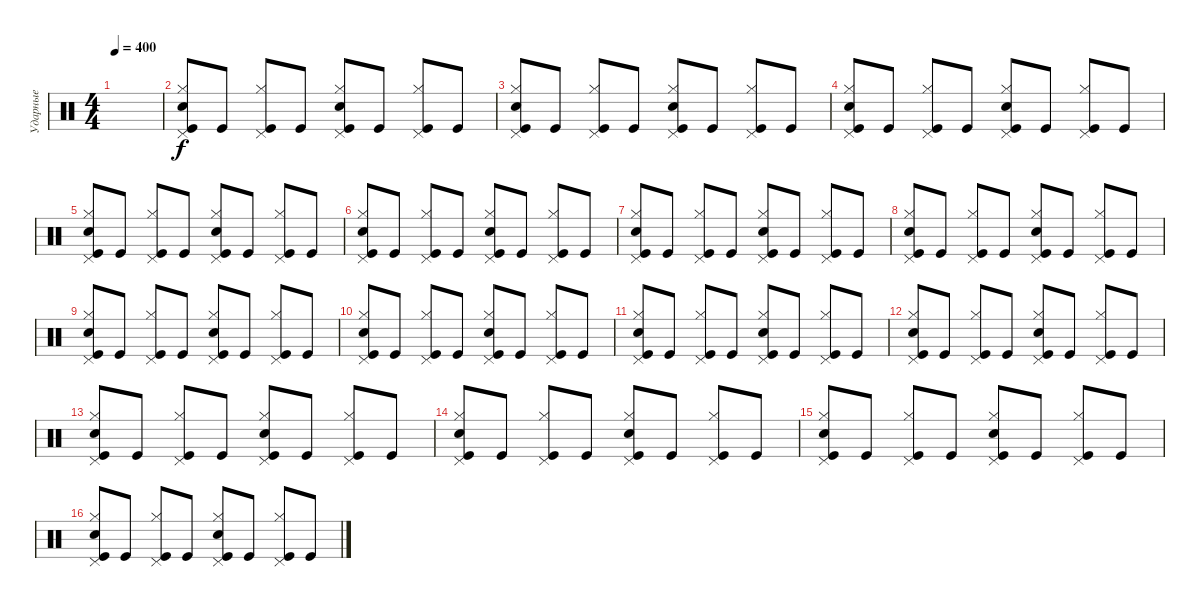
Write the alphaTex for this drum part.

\track ("Ударные" "Ударные") {instrument percussion}
\staff {score}
\articulation defaults
\ts (4 4)
\tempo 400
\clef neutral
\ks c
|
("Pedal Hi-Hat (hit)" "Hi-Hat (closed)" "Kick (hit)" "Electric Snare (hit)").8 "Kick (hit)".8 ("Kick (hit)" "Pedal Hi-Hat (hit)" "Hi-Hat (closed)").8 "Kick (hit)".8 ("Kick (hit)" "Electric Snare (hit)" "Pedal Hi-Hat (hit)" "Hi-Hat (closed)").8 "Kick (hit)".8 ("Kick (hit)" "Hi-Hat (closed)" "Pedal Hi-Hat (hit)").8 "Kick (hit)".8 |
("Kick (hit)" "Electric Snare (hit)" "Pedal Hi-Hat (hit)" "Hi-Hat (closed)").8 "Kick (hit)".8 ("Kick (hit)" "Hi-Hat (closed)" "Pedal Hi-Hat (hit)").8 "Kick (hit)".8 ("Kick (hit)" "Electric Snare (hit)" "Pedal Hi-Hat (hit)" "Hi-Hat (closed)").8 "Kick (hit)".8 ("Kick (hit)" "Hi-Hat (closed)" "Pedal Hi-Hat (hit)").8 "Kick (hit)".8 |
("Kick (hit)" "Electric Snare (hit)" "Pedal Hi-Hat (hit)" "Hi-Hat (closed)").8 "Kick (hit)".8 ("Kick (hit)" "Hi-Hat (closed)" "Pedal Hi-Hat (hit)").8 "Kick (hit)".8 ("Kick (hit)" "Electric Snare (hit)" "Pedal Hi-Hat (hit)" "Hi-Hat (closed)").8 "Kick (hit)".8 ("Kick (hit)" "Hi-Hat (closed)" "Pedal Hi-Hat (hit)").8 "Kick (hit)".8 |
("Kick (hit)" "Electric Snare (hit)" "Pedal Hi-Hat (hit)" "Hi-Hat (closed)").8 "Kick (hit)".8 ("Kick (hit)" "Hi-Hat (closed)" "Pedal Hi-Hat (hit)").8 "Kick (hit)".8 ("Kick (hit)" "Electric Snare (hit)" "Pedal Hi-Hat (hit)" "Hi-Hat (closed)").8 "Kick (hit)".8 ("Kick (hit)" "Hi-Hat (closed)" "Pedal Hi-Hat (hit)").8 "Kick (hit)".8 |
("Kick (hit)" "Electric Snare (hit)" "Pedal Hi-Hat (hit)" "Hi-Hat (closed)").8 "Kick (hit)".8 ("Kick (hit)" "Hi-Hat (closed)" "Pedal Hi-Hat (hit)").8 "Kick (hit)".8 ("Kick (hit)" "Electric Snare (hit)" "Pedal Hi-Hat (hit)" "Hi-Hat (closed)").8 "Kick (hit)".8 ("Kick (hit)" "Hi-Hat (closed)" "Pedal Hi-Hat (hit)").8 "Kick (hit)".8 |
("Kick (hit)" "Electric Snare (hit)" "Pedal Hi-Hat (hit)" "Hi-Hat (closed)").8 "Kick (hit)".8 ("Kick (hit)" "Hi-Hat (closed)" "Pedal Hi-Hat (hit)").8 "Kick (hit)".8 ("Kick (hit)" "Electric Snare (hit)" "Hi-Hat (closed)" "Pedal Hi-Hat (hit)").8 "Kick (hit)".8 ("Kick (hit)" "Pedal Hi-Hat (hit)" "Hi-Hat (closed)").8 "Kick (hit)".8 |
("Kick (hit)" "Electric Snare (hit)" "Hi-Hat (closed)" "Pedal Hi-Hat (hit)").8 "Kick (hit)".8 ("Kick (hit)" "Pedal Hi-Hat (hit)" "Hi-Hat (closed)").8 "Kick (hit)".8 ("Kick (hit)" "Electric Snare (hit)" "Hi-Hat (closed)" "Pedal Hi-Hat (hit)").8 "Kick (hit)".8 ("Kick (hit)" "Pedal Hi-Hat (hit)" "Hi-Hat (closed)").8 "Kick (hit)".8 |
("Kick (hit)" "Electric Snare (hit)" "Hi-Hat (closed)" "Pedal Hi-Hat (hit)").8 "Kick (hit)".8 ("Kick (hit)" "Pedal Hi-Hat (hit)" "Hi-Hat (closed)").8 "Kick (hit)".8 ("Kick (hit)" "Electric Snare (hit)" "Hi-Hat (closed)" "Pedal Hi-Hat (hit)").8 "Kick (hit)".8 ("Kick (hit)" "Pedal Hi-Hat (hit)" "Hi-Hat (closed)").8 "Kick (hit)".8 |
("Pedal Hi-Hat (hit)" "Hi-Hat (closed)" "Kick (hit)" "Electric Snare (hit)").8 "Kick (hit)".8 ("Kick (hit)" "Pedal Hi-Hat (hit)" "Hi-Hat (closed)").8 "Kick (hit)".8 ("Kick (hit)" "Electric Snare (hit)" "Pedal Hi-Hat (hit)" "Hi-Hat (closed)").8 "Kick (hit)".8 ("Kick (hit)" "Hi-Hat (closed)" "Pedal Hi-Hat (hit)").8 "Kick (hit)".8 |
("Kick (hit)" "Electric Snare (hit)" "Pedal Hi-Hat (hit)" "Hi-Hat (closed)").8 "Kick (hit)".8 ("Kick (hit)" "Hi-Hat (closed)" "Pedal Hi-Hat (hit)").8 "Kick (hit)".8 ("Kick (hit)" "Electric Snare (hit)" "Pedal Hi-Hat (hit)" "Hi-Hat (closed)").8 "Kick (hit)".8 ("Kick (hit)" "Hi-Hat (closed)" "Pedal Hi-Hat (hit)").8 "Kick (hit)".8 |
("Kick (hit)" "Electric Snare (hit)" "Pedal Hi-Hat (hit)" "Hi-Hat (closed)").8 "Kick (hit)".8 ("Kick (hit)" "Hi-Hat (closed)" "Pedal Hi-Hat (hit)").8 "Kick (hit)".8 ("Kick (hit)" "Electric Snare (hit)" "Pedal Hi-Hat (hit)" "Hi-Hat (closed)").8 "Kick (hit)".8 ("Kick (hit)" "Hi-Hat (closed)" "Pedal Hi-Hat (hit)").8 "Kick (hit)".8 |
("Kick (hit)" "Electric Snare (hit)" "Pedal Hi-Hat (hit)" "Hi-Hat (closed)").8 "Kick (hit)".8 ("Kick (hit)" "Hi-Hat (closed)" "Pedal Hi-Hat (hit)").8 "Kick (hit)".8 ("Kick (hit)" "Electric Snare (hit)" "Pedal Hi-Hat (hit)" "Hi-Hat (closed)").8 "Kick (hit)".8 ("Kick (hit)" "Hi-Hat (closed)" "Pedal Hi-Hat (hit)").8 "Kick (hit)".8 |
("Kick (hit)" "Electric Snare (hit)" "Pedal Hi-Hat (hit)" "Hi-Hat (closed)").8 "Kick (hit)".8 ("Kick (hit)" "Hi-Hat (closed)" "Pedal Hi-Hat (hit)").8 "Kick (hit)".8 ("Kick (hit)" "Electric Snare (hit)" "Pedal Hi-Hat (hit)" "Hi-Hat (closed)").8 "Kick (hit)".8 ("Kick (hit)" "Hi-Hat (closed)" "Pedal Hi-Hat (hit)").8 "Kick (hit)".8 |
("Kick (hit)" "Electric Snare (hit)" "Pedal Hi-Hat (hit)" "Hi-Hat (closed)").8 "Kick (hit)".8 ("Kick (hit)" "Hi-Hat (closed)" "Pedal Hi-Hat (hit)").8 "Kick (hit)".8 ("Kick (hit)" "Electric Snare (hit)" "Hi-Hat (closed)" "Pedal Hi-Hat (hit)").8 "Kick (hit)".8 ("Kick (hit)" "Pedal Hi-Hat (hit)" "Hi-Hat (closed)").8 "Kick (hit)".8 |
("Kick (hit)" "Electric Snare (hit)" "Hi-Hat (closed)" "Pedal Hi-Hat (hit)").8 "Kick (hit)".8 ("Kick (hit)" "Pedal Hi-Hat (hit)" "Hi-Hat (closed)").8 "Kick (hit)".8 ("Kick (hit)" "Electric Snare (hit)" "Hi-Hat (closed)" "Pedal Hi-Hat (hit)").8 "Kick (hit)".8 ("Kick (hit)" "Pedal Hi-Hat (hit)" "Hi-Hat (closed)").8 "Kick (hit)".8
